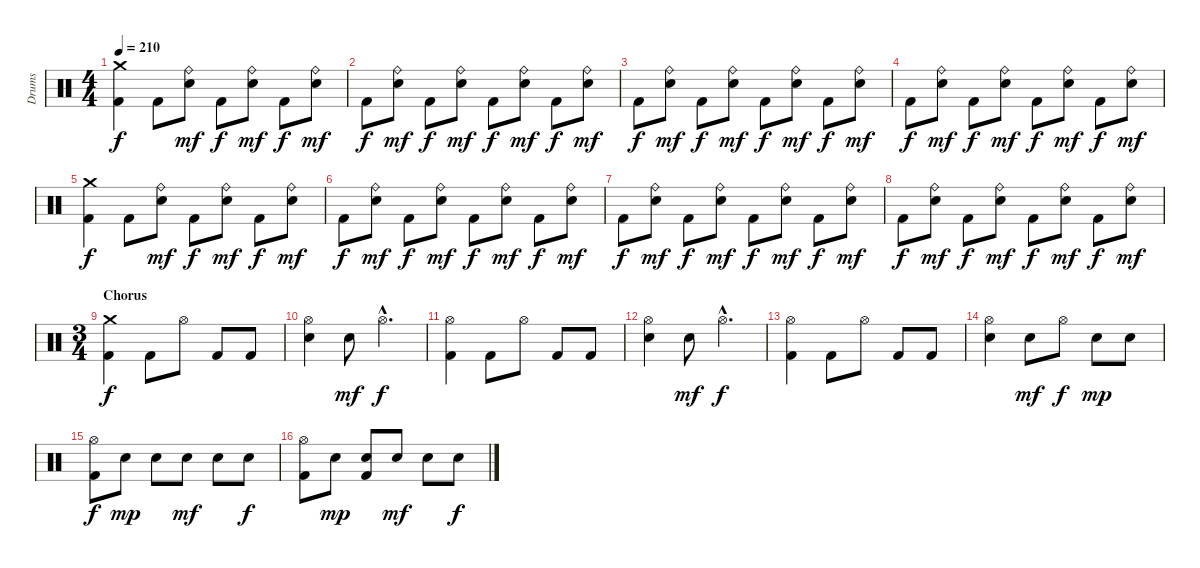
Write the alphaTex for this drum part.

\track ("Drums" "Drums") {instrument percussion}
\staff {score}
\articulation defaults
\ts (4 4)
\tempo 210
\clef neutral
\ks c
("Crash medium (hit)" "Kick (hit) 2").4{dy f} "Kick (hit) 2".8 ("Ride (bell)" "Electric Snare (hit)").8{dy mf} "Kick (hit) 2".8{dy f} ("Ride (bell)" "Electric Snare (hit)").8{dy mf} "Kick (hit) 2".8{dy f} ("Ride (bell)" "Electric Snare (hit)").8{dy mf} |
"Kick (hit) 2".8{dy f} ("Ride (bell)" "Electric Snare (hit)").8{dy mf} "Kick (hit) 2".8{dy f} ("Ride (bell)" "Electric Snare (hit)").8{dy mf} "Kick (hit) 2".8{dy f} ("Ride (bell)" "Electric Snare (hit)").8{dy mf} "Kick (hit) 2".8{dy f} ("Ride (bell)" "Electric Snare (hit)").8{dy mf} |
"Kick (hit) 2".8{dy f} ("Ride (bell)" "Electric Snare (hit)").8{dy mf} "Kick (hit) 2".8{dy f} ("Ride (bell)" "Electric Snare (hit)").8{dy mf} "Kick (hit) 2".8{dy f} ("Ride (bell)" "Electric Snare (hit)").8{dy mf} "Kick (hit) 2".8{dy f} ("Ride (bell)" "Electric Snare (hit)").8{dy mf} |
"Kick (hit) 2".8{dy f} ("Ride (bell)" "Electric Snare (hit)").8{dy mf} "Kick (hit) 2".8{dy f} ("Ride (bell)" "Electric Snare (hit)").8{dy mf} "Kick (hit) 2".8{dy f} ("Ride (bell)" "Electric Snare (hit)").8{dy mf} "Kick (hit) 2".8{dy f} ("Ride (bell)" "Electric Snare (hit)").8{dy mf} |
("Crash medium (hit)" "Kick (hit) 2").4{dy f} "Kick (hit) 2".8 ("Ride (bell)" "Electric Snare (hit)").8{dy mf} "Kick (hit) 2".8{dy f} ("Ride (bell)" "Electric Snare (hit)").8{dy mf} "Kick (hit) 2".8{dy f} ("Ride (bell)" "Electric Snare (hit)").8{dy mf} |
"Kick (hit) 2".8{dy f} ("Ride (bell)" "Electric Snare (hit)").8{dy mf} "Kick (hit) 2".8{dy f} ("Ride (bell)" "Electric Snare (hit)").8{dy mf} "Kick (hit) 2".8{dy f} ("Ride (bell)" "Electric Snare (hit)").8{dy mf} "Kick (hit) 2".8{dy f} ("Ride (bell)" "Electric Snare (hit)").8{dy mf} |
"Kick (hit) 2".8{dy f} ("Ride (bell)" "Electric Snare (hit)").8{dy mf} "Kick (hit) 2".8{dy f} ("Ride (bell)" "Electric Snare (hit)").8{dy mf} "Kick (hit) 2".8{dy f} ("Ride (bell)" "Electric Snare (hit)").8{dy mf} "Kick (hit) 2".8{dy f} ("Ride (bell)" "Electric Snare (hit)").8{dy mf} |
"Kick (hit) 2".8{dy f} ("Ride (bell)" "Electric Snare (hit)").8{dy mf} "Kick (hit) 2".8{dy f} ("Ride (bell)" "Electric Snare (hit)").8{dy mf} "Kick (hit) 2".8{dy f} ("Ride (bell)" "Electric Snare (hit)").8{dy mf} "Kick (hit) 2".8{dy f} ("Ride (bell)" "Electric Snare (hit)").8{dy mf} |
\ts (3 4)
\section ("" "Chorus")
("Crash medium (hit)" "Kick (hit) 2").4{dy f} "Kick (hit) 2".8 "Hi-Hat (open)".8 "Kick (hit) 2".8 "Kick (hit) 2".8 |
("Hi-Hat (open)" "Electric Snare (hit)").4 "Electric Snare (hit)".8{dy mf} "Hi-Hat (open)"{hac}.4{d dy f} |
("Hi-Hat (open)" "Kick (hit) 2").4 "Kick (hit) 2".8 "Hi-Hat (open)".8 "Kick (hit) 2".8 "Kick (hit) 2".8 |
("Hi-Hat (open)" "Electric Snare (hit)").4 "Electric Snare (hit)".8{dy mf} "Hi-Hat (open)"{hac}.4{d dy f} |
("Hi-Hat (open)" "Kick (hit) 2").4 "Kick (hit) 2".8 "Hi-Hat (open)".8 "Kick (hit) 2".8 "Kick (hit) 2".8 |
("Hi-Hat (open)" "Electric Snare (hit)").4 "Electric Snare (hit)".8{dy mf} "Hi-Hat (open)".8{dy f} "Electric Snare (hit)".8{dy mp} "Electric Snare (hit)".8 |
("Hi-Hat (open)" "Kick (hit) 2").8{dy f} "Electric Snare (hit)".8{dy mp} "Electric Snare (hit)".8 "Electric Snare (hit)".8{dy mf} "Electric Snare (hit)".8 "Electric Snare (hit)".8{dy f} |
("Hi-Hat (open)" "Kick (hit) 2").8 "Electric Snare (hit)".8{dy mp} ("Electric Snare (hit)" "Kick (hit) 2").8 "Electric Snare (hit)".8{dy mf} "Electric Snare (hit)".8 "Electric Snare (hit)".8{dy f}
